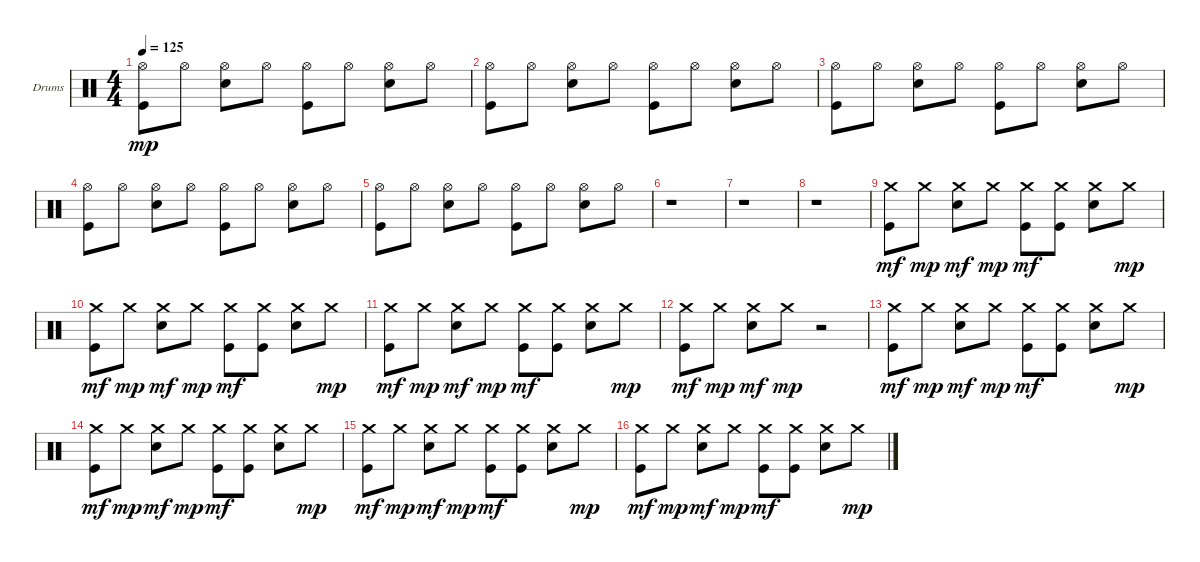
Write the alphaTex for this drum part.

\bracketExtendMode groupsimilarinstruments
\firstSystemTrackNameOrientation horizontal
\otherSystemsTrackNameOrientation horizontal
\track ("Rian Dawson" "Drums") {instrument percussion}
\staff {score}
\articulation defaults
\ts (4 4)
\tempo 125
\clef neutral
\ks c
("Hi-Hat (open)" "Kick (hit)").8{dy mp} "Hi-Hat (open)".8 ("Hi-Hat (open)" "Snare (hit) 2").8 "Hi-Hat (open)".8 ("Hi-Hat (open)" "Kick (hit)").8 "Hi-Hat (open)".8 ("Hi-Hat (open)" "Snare (hit) 2").8 "Hi-Hat (open)".8 |
("Hi-Hat (open)" "Kick (hit)").8 "Hi-Hat (open)".8 ("Hi-Hat (open)" "Snare (hit) 2").8 "Hi-Hat (open)".8 ("Hi-Hat (open)" "Kick (hit)").8 "Hi-Hat (open)".8 ("Hi-Hat (open)" "Snare (hit) 2").8 "Hi-Hat (open)".8 |
("Hi-Hat (open)" "Kick (hit)").8 "Hi-Hat (open)".8 ("Hi-Hat (open)" "Snare (hit) 2").8 "Hi-Hat (open)".8 ("Hi-Hat (open)" "Kick (hit)").8 "Hi-Hat (open)".8 ("Hi-Hat (open)" "Snare (hit) 2").8 "Hi-Hat (open)".8 |
("Hi-Hat (open)" "Kick (hit)").8 "Hi-Hat (open)".8 ("Hi-Hat (open)" "Snare (hit) 2").8 "Hi-Hat (open)".8 ("Hi-Hat (open)" "Kick (hit)").8 "Hi-Hat (open)".8 ("Hi-Hat (open)" "Snare (hit) 2").8 "Hi-Hat (open)".8 |
("Hi-Hat (open)" "Kick (hit)").8 "Hi-Hat (open)".8 ("Hi-Hat (open)" "Snare (hit) 2").8 "Hi-Hat (open)".8 ("Hi-Hat (open)" "Kick (hit)").8 "Hi-Hat (open)".8 ("Hi-Hat (open)" "Snare (hit) 2").8 "Hi-Hat (open)".8 |
r.1 |
r.1 |
r.1 |
("Crash medium (hit)" "Kick (hit)").8{dy mf} "Crash medium (hit)".8{dy mp} ("Crash medium (hit)" "Snare (hit) 2").8{dy mf} "Crash medium (hit)".8{dy mp} ("Crash medium (hit)" "Kick (hit)").8{dy mf} ("Crash medium (hit)" "Kick (hit)").8 ("Crash medium (hit)" "Snare (hit) 2").8 "Crash medium (hit)".8{dy mp} |
("Crash medium (hit)" "Kick (hit)").8{dy mf} "Crash medium (hit)".8{dy mp} ("Crash medium (hit)" "Snare (hit) 2").8{dy mf} "Crash medium (hit)".8{dy mp} ("Crash medium (hit)" "Kick (hit)").8{dy mf} ("Crash medium (hit)" "Kick (hit)").8 ("Crash medium (hit)" "Snare (hit) 2").8 "Crash medium (hit)".8{dy mp} |
("Crash medium (hit)" "Kick (hit)").8{dy mf} "Crash medium (hit)".8{dy mp} ("Crash medium (hit)" "Snare (hit) 2").8{dy mf} "Crash medium (hit)".8{dy mp} ("Crash medium (hit)" "Kick (hit)").8{dy mf} ("Crash medium (hit)" "Kick (hit)").8 ("Crash medium (hit)" "Snare (hit) 2").8 "Crash medium (hit)".8{dy mp} |
("Crash medium (hit)" "Kick (hit)").8{dy mf} "Crash medium (hit)".8{dy mp} ("Crash medium (hit)" "Snare (hit) 2").8{dy mf} "Crash medium (hit)".8{dy mp} r.2 |
("Crash medium (hit)" "Kick (hit)").8{dy mf} "Crash medium (hit)".8{dy mp} ("Crash medium (hit)" "Snare (hit) 2").8{dy mf} "Crash medium (hit)".8{dy mp} ("Crash medium (hit)" "Kick (hit)").8{dy mf} ("Crash medium (hit)" "Kick (hit)").8 ("Crash medium (hit)" "Snare (hit) 2").8 "Crash medium (hit)".8{dy mp} |
("Crash medium (hit)" "Kick (hit)").8{dy mf} "Crash medium (hit)".8{dy mp} ("Crash medium (hit)" "Snare (hit) 2").8{dy mf} "Crash medium (hit)".8{dy mp} ("Crash medium (hit)" "Kick (hit)").8{dy mf} ("Crash medium (hit)" "Kick (hit)").8 ("Crash medium (hit)" "Snare (hit) 2").8 "Crash medium (hit)".8{dy mp} |
("Crash medium (hit)" "Kick (hit)").8{dy mf} "Crash medium (hit)".8{dy mp} ("Crash medium (hit)" "Snare (hit) 2").8{dy mf} "Crash medium (hit)".8{dy mp} ("Crash medium (hit)" "Kick (hit)").8{dy mf} ("Crash medium (hit)" "Kick (hit)").8 ("Crash medium (hit)" "Snare (hit) 2").8 "Crash medium (hit)".8{dy mp} |
("Crash medium (hit)" "Kick (hit)").8{dy mf} "Crash medium (hit)".8{dy mp} ("Crash medium (hit)" "Snare (hit) 2").8{dy mf} "Crash medium (hit)".8{dy mp} ("Crash medium (hit)" "Kick (hit)").8{dy mf} ("Crash medium (hit)" "Kick (hit)").8 ("Crash medium (hit)" "Snare (hit) 2").8 "Crash medium (hit)".8{dy mp}
